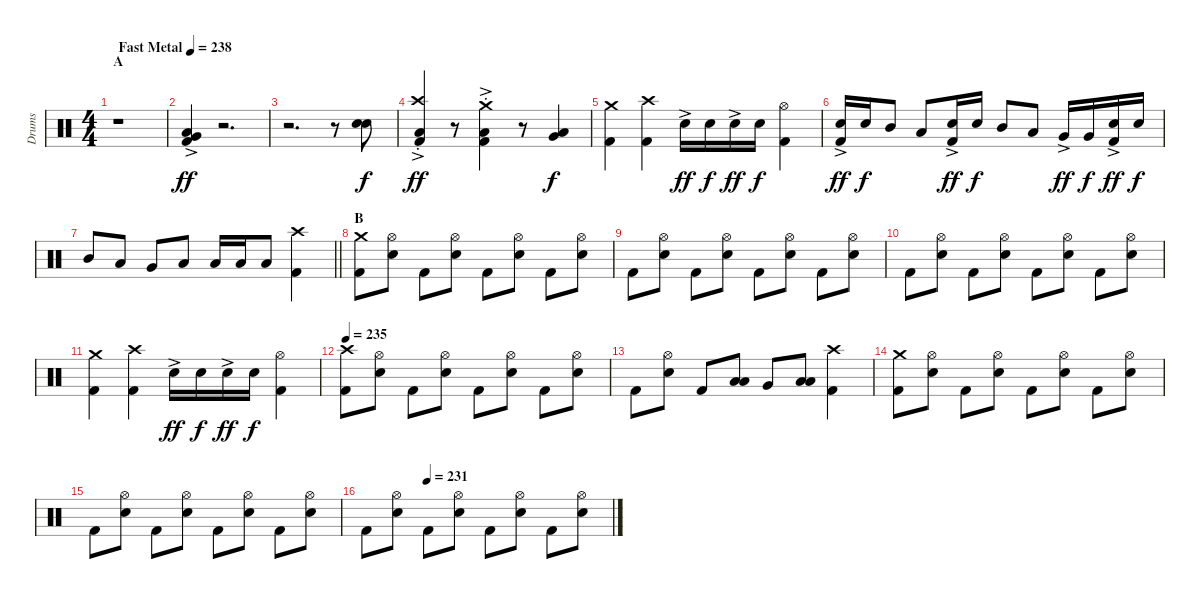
\track ("Drums" "Drums") {instrument percussion}
\staff {score}
\articulation defaults
\ts (4 4)
\section ("" "A")
\tempo (238 "Fast Metal")
\clef neutral
\ks c
r.1{dy ff} |
("Very Low Tom (hit)"{ac} "Low Floor Tom (hit)"{ac} "Kick (hit) 2"{ac}).4 r.2{d} |
r.2{d} r.8 ("Electric Snare (hit)" "Electric Snare (hit)").8{bu 60 dy f} |
("Crash high (hit)"{ac st} "Low Tom (hit)" "Kick (hit) 2").4{dy ff} r.8{volume 0} ("Crash medium (hit)"{ac st} "Low Tom (hit)" "Kick (hit) 2").4{volume 14} r.8{volume 0} ("Very Low Tom (hit)" "Low Floor Tom (hit)").4{bu 60 dy f volume 14} |
("Crash medium (hit)" "Kick (hit) 2").4 ("Crash high (hit)" "Kick (hit) 2").4 "Electric Snare (hit)"{ac}.16{dy ff} "Electric Snare (hit)".16{dy f} "Electric Snare (hit)"{ac}.16{dy ff} "Electric Snare (hit)".16{dy f} ("Hi-Hat (open)" "Kick (hit) 2").4 |
("Electric Snare (hit)"{ac} "Kick (hit) 2").16{dy ff} "Electric Snare (hit)".16{dy f} "Mid Tom (hit)".8 "Low Tom (hit)".8 ("Electric Snare (hit)"{ac} "Kick (hit) 2").16{dy ff} "Electric Snare (hit)".16{dy f} "Mid Tom (hit)".8 "Low Tom (hit)".8 "Very Low Tom (hit)"{ac}.16{dy ff} "Very Low Tom (hit)".16{dy f} ("Electric Snare (hit)"{ac} "Kick (hit) 2").16{dy ff} "Electric Snare (hit)".16{dy f} |
\barLineRight lightlight "Mid Tom (hit)".8 "Low Tom (hit)".8 "Very Low Tom (hit)".8 "Low Floor Tom (hit)".8 "Low Floor Tom (hit)".16 "Low Floor Tom (hit)".16 "Low Floor Tom (hit)".8
("Crash high (hit)" "Kick (hit) 2").4 |
\section ("" "B")
("Crash medium (hit)" "Kick (hit) 2").8 ("Hi-Hat (open)" "Electric Snare (hit)").8 "Kick (hit) 2".8 ("Hi-Hat (open)" "Electric Snare (hit)").8 "Kick (hit) 2".8 ("Hi-Hat (open)" "Electric Snare (hit)").8 "Kick (hit) 2".8 ("Hi-Hat (open)" "Electric Snare (hit)").8 |
"Kick (hit) 2".8 ("Hi-Hat (open)" "Electric Snare (hit)").8 "Kick (hit) 2".8 ("Hi-Hat (open)" "Electric Snare (hit)").8 "Kick (hit) 2".8 ("Hi-Hat (open)" "Electric Snare (hit)").8 "Kick (hit) 2".8 ("Hi-Hat (open)" "Electric Snare (hit)").8 |
"Kick (hit) 2".8 ("Hi-Hat (open)" "Electric Snare (hit)").8 "Kick (hit) 2".8 ("Hi-Hat (open)" "Electric Snare (hit)").8 "Kick (hit) 2".8 ("Hi-Hat (open)" "Electric Snare (hit)").8 "Kick (hit) 2".8 ("Hi-Hat (open)" "Electric Snare (hit)").8 |
("Crash medium (hit)" "Kick (hit) 2").4 ("Crash high (hit)" "Kick (hit) 2").4 "Electric Snare (hit)"{ac}.16{dy ff} "Electric Snare (hit)".16{dy f} "Electric Snare (hit)"{ac}.16{dy ff} "Electric Snare (hit)".16{dy f} ("Hi-Hat (open)" "Kick (hit) 2").4 |
\tempo 235
("Crash high (hit)" "Kick (hit) 2").8 ("Hi-Hat (open)" "Electric Snare (hit)").8 "Kick (hit) 2".8 ("Hi-Hat (open)" "Electric Snare (hit)").8 "Kick (hit) 2".8 ("Hi-Hat (open)" "Electric Snare (hit)").8 "Kick (hit) 2".8 ("Hi-Hat (open)" "Electric Snare (hit)").8 |
"Kick (hit) 2".8 ("Hi-Hat (open)" "Electric Snare (hit)").8 "Kick (hit) 2".8 ("Low Tom (hit)" "Low Tom (hit)").8{bu 60} "Very Low Tom (hit)".8 ("Low Floor Tom (hit)" "Low Floor Tom (hit)").8{bu 60} ("Crash high (hit)" "Kick (hit) 2").4 |
("Crash medium (hit)" "Kick (hit) 2").8 ("Hi-Hat (open)" "Electric Snare (hit)").8 "Kick (hit) 2".8 ("Hi-Hat (open)" "Electric Snare (hit)").8 "Kick (hit) 2".8 ("Hi-Hat (open)" "Electric Snare (hit)").8 "Kick (hit) 2".8 ("Hi-Hat (open)" "Electric Snare (hit)").8 |
"Kick (hit) 2".8 ("Hi-Hat (open)" "Electric Snare (hit)").8 "Kick (hit) 2".8 ("Hi-Hat (open)" "Electric Snare (hit)").8 "Kick (hit) 2".8 ("Hi-Hat (open)" "Electric Snare (hit)").8 "Kick (hit) 2".8 ("Hi-Hat (open)" "Electric Snare (hit)").8 |
\tempo (231 0.25)
"Kick (hit) 2".8 ("Hi-Hat (open)" "Electric Snare (hit)").8 "Kick (hit) 2".8 ("Hi-Hat (open)" "Electric Snare (hit)").8 "Kick (hit) 2".8 ("Hi-Hat (open)" "Electric Snare (hit)").8 "Kick (hit) 2".8 ("Hi-Hat (open)" "Electric Snare (hit)").8
